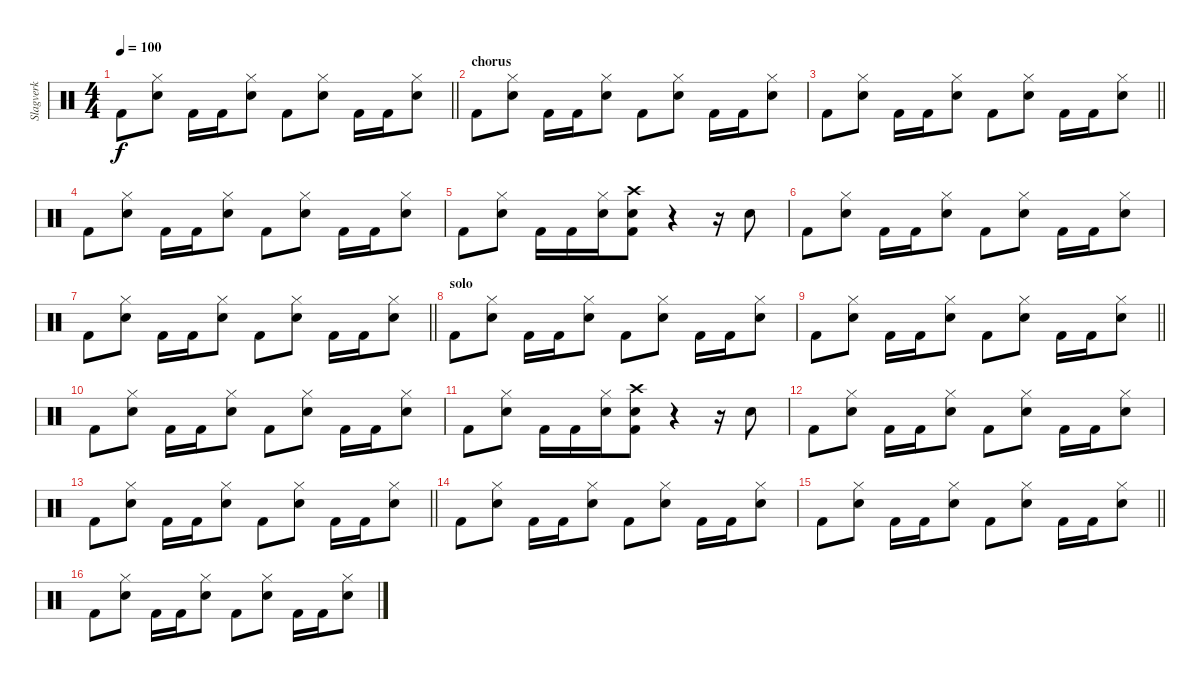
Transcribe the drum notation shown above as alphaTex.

\track ("Slagverk" "Slagverk") {instrument percussion}
\staff {score}
\articulation defaults
\ts (4 4)
\tempo 100
\clef neutral
\barLineRight lightlight
\ks c "Kick (hit) 2".8{dy f}
("Snare (hit) 2" "Hi-Hat (closed)").8 "Kick (hit) 2".16 "Kick (hit) 2".16 ("Snare (hit) 2" "Hi-Hat (closed)").8 "Kick (hit) 2".8 ("Snare (hit) 2" "Hi-Hat (closed)").8 "Kick (hit) 2".16 "Kick (hit) 2".16 ("Snare (hit) 2" "Hi-Hat (closed)").8 |
\section ("" "chorus")
"Kick (hit) 2".8 ("Snare (hit) 2" "Hi-Hat (closed)").8 "Kick (hit) 2".16 "Kick (hit) 2".16 ("Snare (hit) 2" "Hi-Hat (closed)").8 "Kick (hit) 2".8 ("Snare (hit) 2" "Hi-Hat (closed)").8 "Kick (hit) 2".16 "Kick (hit) 2".16 ("Snare (hit) 2" "Hi-Hat (closed)").8 |
\barLineRight lightlight "Kick (hit) 2".8
("Snare (hit) 2" "Hi-Hat (closed)").8 "Kick (hit) 2".16 "Kick (hit) 2".16 ("Snare (hit) 2" "Hi-Hat (closed)").8 "Kick (hit) 2".8 ("Snare (hit) 2" "Hi-Hat (closed)").8 "Kick (hit) 2".16 "Kick (hit) 2".16 ("Snare (hit) 2" "Hi-Hat (closed)").8 |
"Kick (hit) 2".8 ("Snare (hit) 2" "Hi-Hat (closed)").8 "Kick (hit) 2".16 "Kick (hit) 2".16 ("Snare (hit) 2" "Hi-Hat (closed)").8 "Kick (hit) 2".8 ("Snare (hit) 2" "Hi-Hat (closed)").8 "Kick (hit) 2".16 "Kick (hit) 2".16 ("Snare (hit) 2" "Hi-Hat (closed)").8 |
"Kick (hit) 2".8 ("Snare (hit) 2" "Hi-Hat (closed)").8 "Kick (hit) 2".16 "Kick (hit) 2".16 ("Snare (hit) 2" "Hi-Hat (closed)").16 ("Kick (hit) 2" "Snare (hit) 2" "Crash high (hit)").8 r.4 r.16 "Snare (hit) 2".8 |
"Kick (hit) 2".8 ("Snare (hit) 2" "Hi-Hat (closed)").8 "Kick (hit) 2".16 "Kick (hit) 2".16 ("Snare (hit) 2" "Hi-Hat (closed)").8 "Kick (hit) 2".8 ("Snare (hit) 2" "Hi-Hat (closed)").8 "Kick (hit) 2".16 "Kick (hit) 2".16 ("Snare (hit) 2" "Hi-Hat (closed)").8 |
\barLineRight lightlight "Kick (hit) 2".8
("Snare (hit) 2" "Hi-Hat (closed)").8 "Kick (hit) 2".16 "Kick (hit) 2".16 ("Snare (hit) 2" "Hi-Hat (closed)").8 "Kick (hit) 2".8 ("Snare (hit) 2" "Hi-Hat (closed)").8 "Kick (hit) 2".16 "Kick (hit) 2".16 ("Snare (hit) 2" "Hi-Hat (closed)").8 |
\section ("" "solo")
"Kick (hit) 2".8 ("Snare (hit) 2" "Hi-Hat (closed)").8 "Kick (hit) 2".16 "Kick (hit) 2".16 ("Snare (hit) 2" "Hi-Hat (closed)").8 "Kick (hit) 2".8 ("Snare (hit) 2" "Hi-Hat (closed)").8 "Kick (hit) 2".16 "Kick (hit) 2".16 ("Snare (hit) 2" "Hi-Hat (closed)").8 |
\barLineRight lightlight "Kick (hit) 2".8
("Snare (hit) 2" "Hi-Hat (closed)").8 "Kick (hit) 2".16 "Kick (hit) 2".16 ("Snare (hit) 2" "Hi-Hat (closed)").8 "Kick (hit) 2".8 ("Snare (hit) 2" "Hi-Hat (closed)").8 "Kick (hit) 2".16 "Kick (hit) 2".16 ("Snare (hit) 2" "Hi-Hat (closed)").8 |
"Kick (hit) 2".8 ("Snare (hit) 2" "Hi-Hat (closed)").8 "Kick (hit) 2".16 "Kick (hit) 2".16 ("Snare (hit) 2" "Hi-Hat (closed)").8 "Kick (hit) 2".8 ("Snare (hit) 2" "Hi-Hat (closed)").8 "Kick (hit) 2".16 "Kick (hit) 2".16 ("Snare (hit) 2" "Hi-Hat (closed)").8 |
"Kick (hit) 2".8 ("Snare (hit) 2" "Hi-Hat (closed)").8 "Kick (hit) 2".16 "Kick (hit) 2".16 ("Snare (hit) 2" "Hi-Hat (closed)").16 ("Kick (hit) 2" "Snare (hit) 2" "Crash high (hit)").8 r.4 r.16 "Snare (hit) 2".8 |
"Kick (hit) 2".8 ("Snare (hit) 2" "Hi-Hat (closed)").8 "Kick (hit) 2".16 "Kick (hit) 2".16 ("Snare (hit) 2" "Hi-Hat (closed)").8 "Kick (hit) 2".8 ("Snare (hit) 2" "Hi-Hat (closed)").8 "Kick (hit) 2".16 "Kick (hit) 2".16 ("Snare (hit) 2" "Hi-Hat (closed)").8 |
\barLineRight lightlight "Kick (hit) 2".8
("Snare (hit) 2" "Hi-Hat (closed)").8 "Kick (hit) 2".16 "Kick (hit) 2".16 ("Snare (hit) 2" "Hi-Hat (closed)").8 "Kick (hit) 2".8 ("Snare (hit) 2" "Hi-Hat (closed)").8 "Kick (hit) 2".16 "Kick (hit) 2".16 ("Snare (hit) 2" "Hi-Hat (closed)").8 |
"Kick (hit) 2".8 ("Snare (hit) 2" "Hi-Hat (closed)").8 "Kick (hit) 2".16 "Kick (hit) 2".16 ("Snare (hit) 2" "Hi-Hat (closed)").8 "Kick (hit) 2".8 ("Snare (hit) 2" "Hi-Hat (closed)").8 "Kick (hit) 2".16 "Kick (hit) 2".16 ("Snare (hit) 2" "Hi-Hat (closed)").8 |
\barLineRight lightlight "Kick (hit) 2".8
("Snare (hit) 2" "Hi-Hat (closed)").8 "Kick (hit) 2".16 "Kick (hit) 2".16 ("Snare (hit) 2" "Hi-Hat (closed)").8 "Kick (hit) 2".8 ("Snare (hit) 2" "Hi-Hat (closed)").8 "Kick (hit) 2".16 "Kick (hit) 2".16 ("Snare (hit) 2" "Hi-Hat (closed)").8 |
"Kick (hit) 2".8 ("Snare (hit) 2" "Hi-Hat (closed)").8 "Kick (hit) 2".16 "Kick (hit) 2".16 ("Snare (hit) 2" "Hi-Hat (closed)").8 "Kick (hit) 2".8 ("Snare (hit) 2" "Hi-Hat (closed)").8 "Kick (hit) 2".16 "Kick (hit) 2".16 ("Snare (hit) 2" "Hi-Hat (closed)").8
